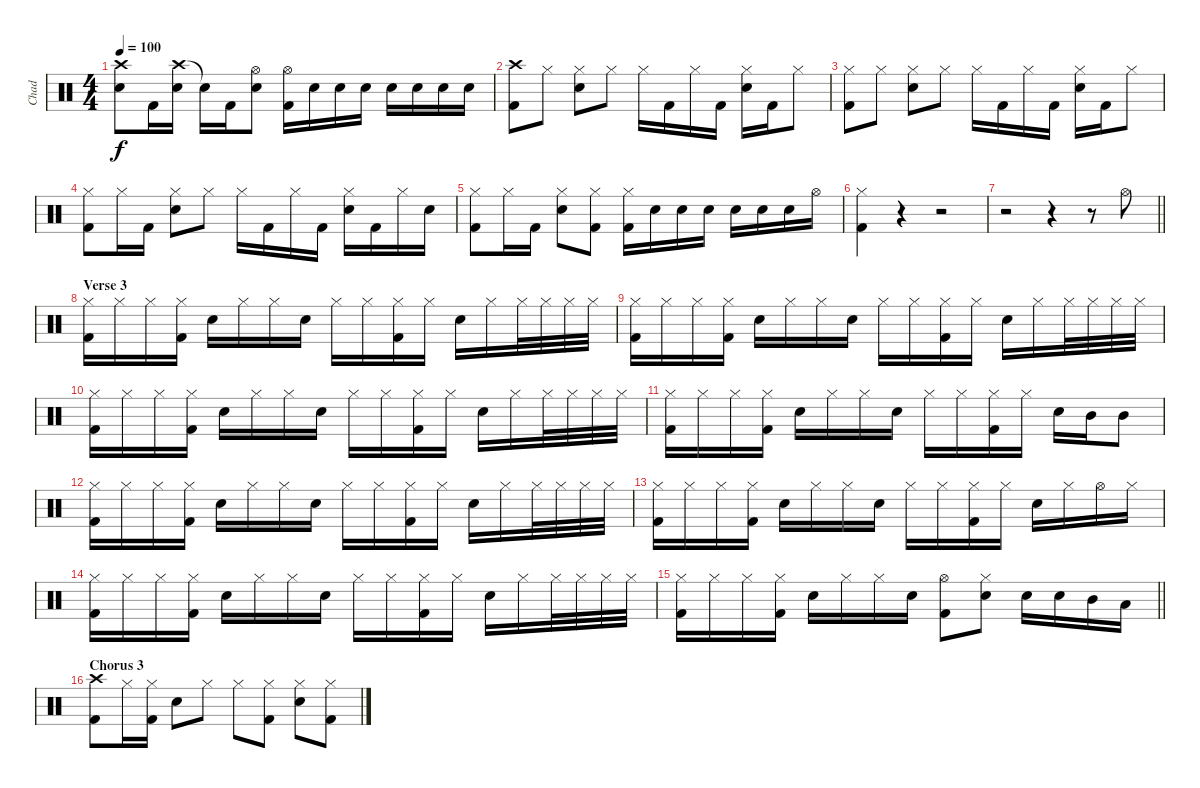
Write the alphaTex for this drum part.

\track ("Chad" "Chad") {instrument percussion}
\staff {score}
\articulation defaults
\ts (4 4)
\tempo 100
\clef neutral
\ks c
("Crash high (hit)" "Electric Snare (hit)").8{dy f} "Kick (hit) 2".16 ("Crash high (hit)" "Electric Snare (hit)").16 "Snare (hit)"{t}.16 "Kick (hit) 2".16 ("Hi-Hat (open)" "Electric Snare (hit)").8 ("Hi-Hat (open)" "Kick (hit) 2").16 "Electric Snare (hit)".16 "Electric Snare (hit)".16 "Electric Snare (hit)".16 "Electric Snare (hit)".16 "Electric Snare (hit)".16 "Electric Snare (hit)".16 "Electric Snare (hit)".16 |
("Crash high (hit)" "Kick (hit) 2").8 "Hi-Hat (closed)".8 ("Hi-Hat (closed)" "Electric Snare (hit)").8 "Hi-Hat (closed)".8 "Hi-Hat (closed)".16 "Kick (hit) 2".16 "Hi-Hat (closed)".16 "Kick (hit) 2".16 ("Hi-Hat (closed)" "Electric Snare (hit)").16 "Kick (hit) 2".16 "Hi-Hat (closed)".8 |
("Hi-Hat (closed)" "Kick (hit) 2").8 "Hi-Hat (closed)".8 ("Hi-Hat (closed)" "Electric Snare (hit)").8 "Hi-Hat (closed)".8 "Hi-Hat (closed)".16 "Kick (hit) 2".16 "Hi-Hat (closed)".16 "Kick (hit) 2".16 ("Hi-Hat (closed)" "Electric Snare (hit)").16 "Kick (hit) 2".16 "Hi-Hat (closed)".8 |
("Hi-Hat (closed)" "Kick (hit) 2").8 "Hi-Hat (closed)".16 "Kick (hit) 2".16 ("Hi-Hat (closed)" "Electric Snare (hit)").8 "Hi-Hat (closed)".8 "Hi-Hat (closed)".16 "Kick (hit) 2".16 "Hi-Hat (closed)".16 "Kick (hit) 2".16 ("Hi-Hat (closed)" "Electric Snare (hit)").16 "Kick (hit) 2".16 "Hi-Hat (closed)".16 "Electric Snare (hit)".16 |
("Hi-Hat (closed)" "Kick (hit) 2").8 "Hi-Hat (closed)".16 "Kick (hit) 2".16 ("Hi-Hat (closed)" "Electric Snare (hit)").8 ("Hi-Hat (closed)" "Kick (hit) 2").8 ("Hi-Hat (closed)" "Kick (hit) 2").16 "Electric Snare (hit)".16 "Electric Snare (hit)".16 "Electric Snare (hit)".16 "Electric Snare (hit)".16 "Electric Snare (hit)".16 "Electric Snare (hit)".16 "Hi-Hat (open)".16 |
("Hi-Hat (closed)" "Kick (hit) 2").4 r.4 r.2 |
\barLineRight lightlight
r.2 r.4 r.8 "Hi-Hat (open)".8 |
\section ("" "Verse 3")
("Hi-Hat (closed)" "Kick (hit) 2").16 "Hi-Hat (closed)".16 "Hi-Hat (closed)".16 ("Hi-Hat (closed)" "Kick (hit) 2").16 "Electric Snare (hit)".16 "Hi-Hat (closed)".16 "Hi-Hat (closed)".16 "Electric Snare (hit)".16 "Hi-Hat (closed)".16 "Hi-Hat (closed)".16 ("Hi-Hat (closed)" "Kick (hit) 2").16 "Hi-Hat (closed)".16 "Electric Snare (hit)".16 "Hi-Hat (closed)".16 "Hi-Hat (closed)".32 "Hi-Hat (closed)".32 "Hi-Hat (closed)".32 "Hi-Hat (closed)".32 |
("Hi-Hat (closed)" "Kick (hit) 2").16 "Hi-Hat (closed)".16 "Hi-Hat (closed)".16 ("Hi-Hat (closed)" "Kick (hit) 2").16 "Electric Snare (hit)".16 "Hi-Hat (closed)".16 "Hi-Hat (closed)".16 "Electric Snare (hit)".16 "Hi-Hat (closed)".16 "Hi-Hat (closed)".16 ("Hi-Hat (closed)" "Kick (hit) 2").16 "Hi-Hat (closed)".16 "Electric Snare (hit)".16 "Hi-Hat (closed)".16 "Hi-Hat (closed)".32 "Hi-Hat (closed)".32 "Hi-Hat (closed)".32 "Hi-Hat (closed)".32 |
("Hi-Hat (closed)" "Kick (hit) 2").16 "Hi-Hat (closed)".16 "Hi-Hat (closed)".16 ("Hi-Hat (closed)" "Kick (hit) 2").16 "Electric Snare (hit)".16 "Hi-Hat (closed)".16 "Hi-Hat (closed)".16 "Electric Snare (hit)".16 "Hi-Hat (closed)".16 "Hi-Hat (closed)".16 ("Hi-Hat (closed)" "Kick (hit) 2").16 "Hi-Hat (closed)".16 "Electric Snare (hit)".16 "Hi-Hat (closed)".16 "Hi-Hat (closed)".32 "Hi-Hat (closed)".32 "Hi-Hat (closed)".32 "Hi-Hat (closed)".32 |
("Hi-Hat (closed)" "Kick (hit) 2").16 "Hi-Hat (closed)".16 "Hi-Hat (closed)".16 ("Hi-Hat (closed)" "Kick (hit) 2").16 "Electric Snare (hit)".16 "Hi-Hat (closed)".16 "Hi-Hat (closed)".16 "Electric Snare (hit)".16 "Hi-Hat (closed)".16 "Hi-Hat (closed)".16 ("Hi-Hat (closed)" "Kick (hit) 2").16 "Hi-Hat (closed)".16 "Electric Snare (hit)".16 "Mid Tom (hit)".16 "Mid Tom (hit)".8 |
("Hi-Hat (closed)" "Kick (hit) 2").16 "Hi-Hat (closed)".16 "Hi-Hat (closed)".16 ("Hi-Hat (closed)" "Kick (hit) 2").16 "Electric Snare (hit)".16 "Hi-Hat (closed)".16 "Hi-Hat (closed)".16 "Electric Snare (hit)".16 "Hi-Hat (closed)".16 "Hi-Hat (closed)".16 ("Hi-Hat (closed)" "Kick (hit) 2").16 "Hi-Hat (closed)".16 "Electric Snare (hit)".16 "Hi-Hat (closed)".16 "Hi-Hat (closed)".32 "Hi-Hat (closed)".32 "Hi-Hat (closed)".32 "Hi-Hat (closed)".32 |
("Hi-Hat (closed)" "Kick (hit) 2").16 "Hi-Hat (closed)".16 "Hi-Hat (closed)".16 ("Hi-Hat (closed)" "Kick (hit) 2").16 "Electric Snare (hit)".16 "Hi-Hat (closed)".16 "Hi-Hat (closed)".16 "Electric Snare (hit)".16 "Hi-Hat (closed)".16 "Hi-Hat (closed)".16 ("Hi-Hat (closed)" "Kick (hit) 2").16 "Hi-Hat (closed)".16 "Electric Snare (hit)".16 "Hi-Hat (closed)".16 "Hi-Hat (open)".16 "Hi-Hat (closed)".16 |
("Hi-Hat (closed)" "Kick (hit) 2").16 "Hi-Hat (closed)".16 "Hi-Hat (closed)".16 ("Hi-Hat (closed)" "Kick (hit) 2").16 "Electric Snare (hit)".16 "Hi-Hat (closed)".16 "Hi-Hat (closed)".16 "Electric Snare (hit)".16 "Hi-Hat (closed)".16 "Hi-Hat (closed)".16 ("Hi-Hat (closed)" "Kick (hit) 2").16 "Hi-Hat (closed)".16 "Electric Snare (hit)".16 "Hi-Hat (closed)".16 "Hi-Hat (closed)".32 "Hi-Hat (closed)".32 "Hi-Hat (closed)".32 "Hi-Hat (closed)".32 |
\barLineRight lightlight
("Hi-Hat (closed)" "Kick (hit) 2").16 "Hi-Hat (closed)".16 "Hi-Hat (closed)".16 ("Hi-Hat (closed)" "Kick (hit) 2").16 "Electric Snare (hit)".16 "Hi-Hat (closed)".16 "Hi-Hat (closed)".16 "Electric Snare (hit)".16 ("Hi-Hat (open)" "Kick (hit) 2").8 ("Hi-Hat (closed)" "Electric Snare (hit)").8 "Electric Snare (hit)".16 "Electric Snare (hit)".16 "Mid Tom (hit)".16 "Low Tom (hit)".16 |
\section ("" "Chorus 3")
("Crash high (hit)" "Kick (hit) 2").8 "Hi-Hat (closed)".16 ("Hi-Hat (closed)" "Kick (hit) 2").16 "Electric Snare (hit)".8 "Hi-Hat (closed)".8 "Hi-Hat (closed)".8 ("Hi-Hat (closed)" "Kick (hit) 2").8 ("Hi-Hat (closed)" "Electric Snare (hit)").8 ("Hi-Hat (closed)" "Kick (hit) 2").8
